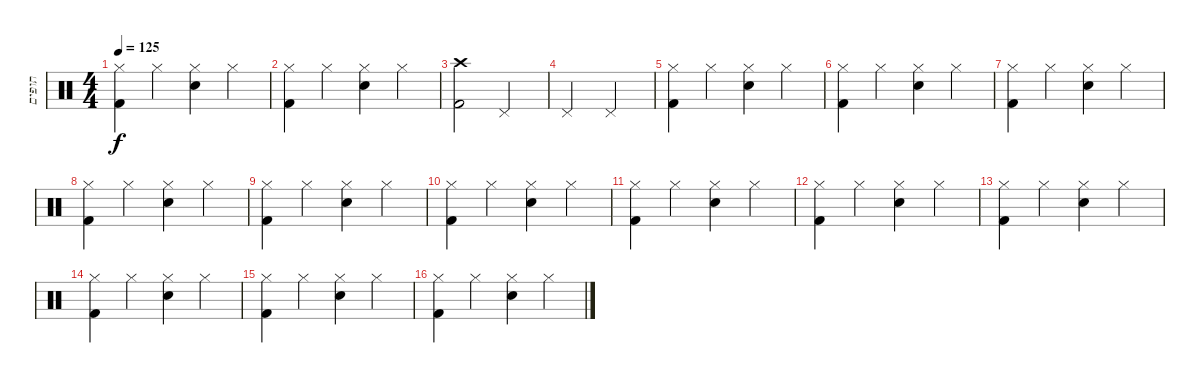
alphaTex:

\track ("תופים" "תופים") {instrument percussion}
\staff {score}
\articulation defaults
\ts (4 4)
\tempo 125
\clef neutral
\ks c
("Hi-Hat (closed)" "Kick (hit) 2").4{dy f} "Hi-Hat (closed)".4 ("Hi-Hat (closed)" "Snare (hit) 2").4 "Hi-Hat (closed)".4 |
("Hi-Hat (closed)" "Kick (hit) 2").4 "Hi-Hat (closed)".4 ("Hi-Hat (closed)" "Snare (hit) 2").4 "Hi-Hat (closed)".4 |
("Crash high (hit)" "Kick (hit) 2").2 "Pedal Hi-Hat (hit)".2 |
"Pedal Hi-Hat (hit)".2 "Pedal Hi-Hat (hit)".2 |
("Hi-Hat (closed)" "Kick (hit) 2").4 "Hi-Hat (closed)".4 ("Hi-Hat (closed)" "Snare (hit) 2").4 "Hi-Hat (closed)".4 |
("Hi-Hat (closed)" "Kick (hit) 2").4 "Hi-Hat (closed)".4 ("Hi-Hat (closed)" "Snare (hit) 2").4 "Hi-Hat (closed)".4 |
("Hi-Hat (closed)" "Kick (hit) 2").4 "Hi-Hat (closed)".4 ("Hi-Hat (closed)" "Snare (hit) 2").4 "Hi-Hat (closed)".4 |
("Hi-Hat (closed)" "Kick (hit) 2").4 "Hi-Hat (closed)".4 ("Hi-Hat (closed)" "Snare (hit) 2").4 "Hi-Hat (closed)".4 |
("Hi-Hat (closed)" "Kick (hit) 2").4 "Hi-Hat (closed)".4 ("Hi-Hat (closed)" "Snare (hit) 2").4 "Hi-Hat (closed)".4 |
("Hi-Hat (closed)" "Kick (hit) 2").4 "Hi-Hat (closed)".4 ("Hi-Hat (closed)" "Snare (hit) 2").4 "Hi-Hat (closed)".4 |
("Hi-Hat (closed)" "Kick (hit) 2").4 "Hi-Hat (closed)".4 ("Hi-Hat (closed)" "Snare (hit) 2").4 "Hi-Hat (closed)".4 |
("Hi-Hat (closed)" "Kick (hit) 2").4 "Hi-Hat (closed)".4 ("Hi-Hat (closed)" "Snare (hit) 2").4 "Hi-Hat (closed)".4 |
("Hi-Hat (closed)" "Kick (hit) 2").4 "Hi-Hat (closed)".4 ("Hi-Hat (closed)" "Snare (hit) 2").4 "Hi-Hat (closed)".4 |
("Hi-Hat (closed)" "Kick (hit) 2").4 "Hi-Hat (closed)".4 ("Hi-Hat (closed)" "Snare (hit) 2").4 "Hi-Hat (closed)".4 |
("Hi-Hat (closed)" "Kick (hit) 2").4 "Hi-Hat (closed)".4 ("Hi-Hat (closed)" "Snare (hit) 2").4 "Hi-Hat (closed)".4 |
("Hi-Hat (closed)" "Kick (hit) 2").4 "Hi-Hat (closed)".4 ("Hi-Hat (closed)" "Snare (hit) 2").4 "Hi-Hat (closed)".4
